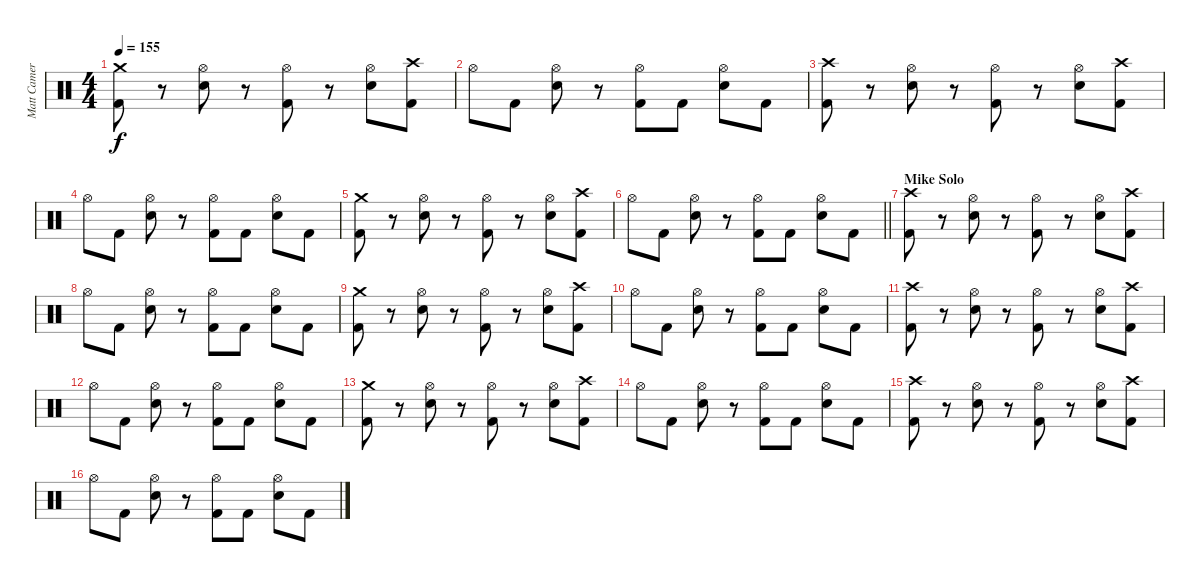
\track ("Matt Cameron" "Matt Camer") {instrument percussion}
\staff {score}
\articulation defaults
\ts (4 4)
\tempo 155
\clef neutral
\ks c
("Crash medium (hit)" "Kick (hit) 2").8{dy f} r.8 ("Hi-Hat (open)" "Snare (hit) 2").8 r.8 ("Hi-Hat (open)" "Kick (hit) 2").8 r.8 ("Hi-Hat (open)" "Snare (hit) 2").8 ("Crash high (hit)" "Kick (hit) 2").8 |
"Hi-Hat (open)".8 "Kick (hit) 2".8 ("Hi-Hat (open)" "Snare (hit) 2").8 r.8 ("Hi-Hat (open)" "Kick (hit) 2").8 "Kick (hit) 2".8 ("Hi-Hat (open)" "Snare (hit) 2").8 "Kick (hit) 2".8 |
("Crash high (hit)" "Kick (hit) 2").8 r.8 ("Hi-Hat (open)" "Snare (hit) 2").8 r.8 ("Hi-Hat (open)" "Kick (hit) 2").8 r.8 ("Hi-Hat (open)" "Snare (hit) 2").8 ("Crash high (hit)" "Kick (hit) 2").8 |
"Hi-Hat (open)".8 "Kick (hit) 2".8 ("Hi-Hat (open)" "Snare (hit) 2").8 r.8 ("Hi-Hat (open)" "Kick (hit) 2").8 "Kick (hit) 2".8 ("Hi-Hat (open)" "Snare (hit) 2").8 "Kick (hit) 2".8 |
("Crash medium (hit)" "Kick (hit) 2").8 r.8 ("Hi-Hat (open)" "Snare (hit) 2").8 r.8 ("Hi-Hat (open)" "Kick (hit) 2").8 r.8 ("Hi-Hat (open)" "Snare (hit) 2").8 ("Crash high (hit)" "Kick (hit) 2").8 |
\barLineRight lightlight "Hi-Hat (open)".8 "Kick (hit) 2".8
("Hi-Hat (open)" "Snare (hit) 2").8 r.8 ("Hi-Hat (open)" "Kick (hit) 2").8 "Kick (hit) 2".8 ("Hi-Hat (open)" "Snare (hit) 2").8 "Kick (hit) 2".8 |
\section ("" "Mike Solo")
("Crash high (hit)" "Kick (hit) 2").8 r.8 ("Hi-Hat (open)" "Snare (hit) 2").8 r.8 ("Hi-Hat (open)" "Kick (hit) 2").8 r.8 ("Hi-Hat (open)" "Snare (hit) 2").8 ("Crash high (hit)" "Kick (hit) 2").8 |
"Hi-Hat (open)".8 "Kick (hit) 2".8 ("Hi-Hat (open)" "Snare (hit) 2").8 r.8 ("Hi-Hat (open)" "Kick (hit) 2").8 "Kick (hit) 2".8 ("Hi-Hat (open)" "Snare (hit) 2").8 "Kick (hit) 2".8 |
("Crash medium (hit)" "Kick (hit) 2").8 r.8 ("Hi-Hat (open)" "Snare (hit) 2").8 r.8 ("Hi-Hat (open)" "Kick (hit) 2").8 r.8 ("Hi-Hat (open)" "Snare (hit) 2").8 ("Crash high (hit)" "Kick (hit) 2").8 |
"Hi-Hat (open)".8 "Kick (hit) 2".8 ("Hi-Hat (open)" "Snare (hit) 2").8 r.8 ("Hi-Hat (open)" "Kick (hit) 2").8 "Kick (hit) 2".8 ("Hi-Hat (open)" "Snare (hit) 2").8 "Kick (hit) 2".8 |
("Crash high (hit)" "Kick (hit) 2").8 r.8 ("Hi-Hat (open)" "Snare (hit) 2").8 r.8 ("Hi-Hat (open)" "Kick (hit) 2").8 r.8 ("Hi-Hat (open)" "Snare (hit) 2").8 ("Crash high (hit)" "Kick (hit) 2").8 |
"Hi-Hat (open)".8 "Kick (hit) 2".8 ("Hi-Hat (open)" "Snare (hit) 2").8 r.8 ("Hi-Hat (open)" "Kick (hit) 2").8 "Kick (hit) 2".8 ("Hi-Hat (open)" "Snare (hit) 2").8 "Kick (hit) 2".8 |
("Crash medium (hit)" "Kick (hit) 2").8 r.8 ("Hi-Hat (open)" "Snare (hit) 2").8 r.8 ("Hi-Hat (open)" "Kick (hit) 2").8 r.8 ("Hi-Hat (open)" "Snare (hit) 2").8 ("Crash high (hit)" "Kick (hit) 2").8 |
"Hi-Hat (open)".8 "Kick (hit) 2".8 ("Hi-Hat (open)" "Snare (hit) 2").8 r.8 ("Hi-Hat (open)" "Kick (hit) 2").8 "Kick (hit) 2".8 ("Hi-Hat (open)" "Snare (hit) 2").8 "Kick (hit) 2".8 |
("Crash high (hit)" "Kick (hit) 2").8 r.8 ("Hi-Hat (open)" "Snare (hit) 2").8 r.8 ("Hi-Hat (open)" "Kick (hit) 2").8 r.8 ("Hi-Hat (open)" "Snare (hit) 2").8 ("Crash high (hit)" "Kick (hit) 2").8 |
"Hi-Hat (open)".8 "Kick (hit) 2".8 ("Hi-Hat (open)" "Snare (hit) 2").8 r.8 ("Hi-Hat (open)" "Kick (hit) 2").8 "Kick (hit) 2".8 ("Hi-Hat (open)" "Snare (hit) 2").8 "Kick (hit) 2".8
